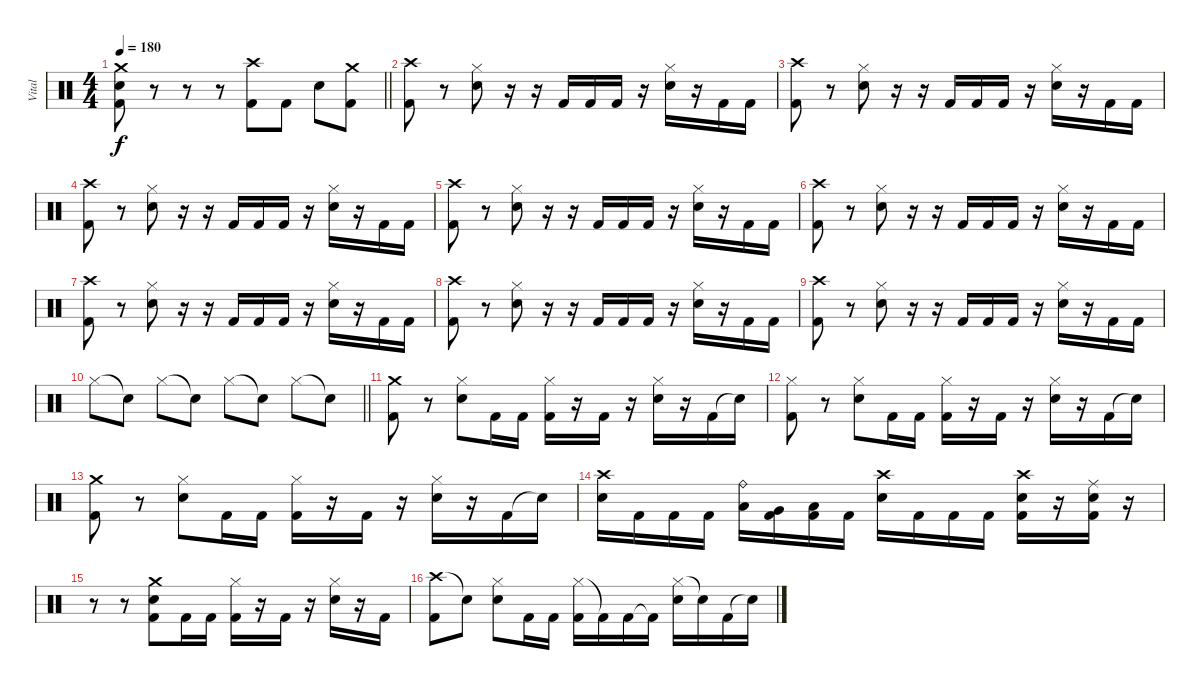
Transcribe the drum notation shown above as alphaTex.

\track ("Vital" "Vital") {instrument percussion}
\staff {score}
\articulation defaults
\ts (4 4)
\tempo 180
\clef neutral
\barLineRight lightlight
\ks c
("Crash medium (hit)" "Snare (hit) 2" "Kick (hit) 2").8{dy f} r.8 r.8 r.8 ("Crash high (hit)" "Kick (hit) 2").8 "Kick (hit) 2".8 "Snare (hit) 2".8 ("Crash medium (hit)" "Kick (hit) 2").8 |
("Crash high (hit)" "Kick (hit) 2").8 r.8 ("Hi-Hat (closed)" "Snare (hit) 2").8 r.16 r.16 "Kick (hit) 2".16 "Kick (hit) 2".16 "Kick (hit) 2".16 r.16 ("Hi-Hat (closed)" "Snare (hit) 2").16 r.16 "Kick (hit) 2".16 "Kick (hit) 2".16 |
("Crash high (hit)" "Kick (hit) 2").8 r.8 ("Hi-Hat (closed)" "Snare (hit) 2").8 r.16 r.16 "Kick (hit) 2".16 "Kick (hit) 2".16 "Kick (hit) 2".16 r.16 ("Hi-Hat (closed)" "Snare (hit) 2").16 r.16 "Kick (hit) 2".16 "Kick (hit) 2".16 |
("Crash high (hit)" "Kick (hit) 2").8 r.8 ("Hi-Hat (closed)" "Snare (hit) 2").8 r.16 r.16 "Kick (hit) 2".16 "Kick (hit) 2".16 "Kick (hit) 2".16 r.16 ("Hi-Hat (closed)" "Snare (hit) 2").16 r.16 "Kick (hit) 2".16 "Kick (hit) 2".16 |
("Crash high (hit)" "Kick (hit) 2").8 r.8 ("Hi-Hat (closed)" "Snare (hit) 2").8 r.16 r.16 "Kick (hit) 2".16 "Kick (hit) 2".16 "Kick (hit) 2".16 r.16 ("Hi-Hat (closed)" "Snare (hit) 2").16 r.16 "Kick (hit) 2".16 "Kick (hit) 2".16 |
("Crash high (hit)" "Kick (hit) 2").8 r.8 ("Hi-Hat (closed)" "Snare (hit) 2").8 r.16 r.16 "Kick (hit) 2".16 "Kick (hit) 2".16 "Kick (hit) 2".16 r.16 ("Hi-Hat (closed)" "Snare (hit) 2").16 r.16 "Kick (hit) 2".16 "Kick (hit) 2".16 |
("Crash high (hit)" "Kick (hit) 2").8 r.8 ("Hi-Hat (closed)" "Snare (hit) 2").8 r.16 r.16 "Kick (hit) 2".16 "Kick (hit) 2".16 "Kick (hit) 2".16 r.16 ("Hi-Hat (closed)" "Snare (hit) 2").16 r.16 "Kick (hit) 2".16 "Kick (hit) 2".16 |
("Crash high (hit)" "Kick (hit) 2").8 r.8 ("Hi-Hat (closed)" "Snare (hit) 2").8 r.16 r.16 "Kick (hit) 2".16 "Kick (hit) 2".16 "Kick (hit) 2".16 r.16 ("Hi-Hat (closed)" "Snare (hit) 2").16 r.16 "Kick (hit) 2".16 "Kick (hit) 2".16 |
("Crash high (hit)" "Kick (hit) 2").8 r.8 ("Hi-Hat (closed)" "Snare (hit) 2").8 r.16 r.16 "Kick (hit) 2".16 "Kick (hit) 2".16 "Kick (hit) 2".16 r.16 ("Hi-Hat (closed)" "Snare (hit) 2").16 r.16 "Kick (hit) 2".16 "Kick (hit) 2".16 |
\barLineRight lightlight "Hi-Hat (closed)".8 "Snare (hit)"{t}.8 "Hi-Hat (closed)".8 "Snare (hit)"{t}.8 "Hi-Hat (closed)".8 "Snare (hit)"{t}.8 "Hi-Hat (closed)".8 "Snare (hit)"{t}.8
|
("Crash medium (hit)" "Kick (hit) 2").8 r.8 ("Hi-Hat (closed)" "Snare (hit) 2").8 "Kick (hit) 2".16 "Kick (hit) 2".16 ("Hi-Hat (closed)" "Kick (hit) 2").16 r.16 "Kick (hit) 2".16 r.16 ("Hi-Hat (closed)" "Snare (hit) 2").16 r.16 "Kick (hit) 2".16 "Snare (hit)"{t}.16 |
("Hi-Hat (closed)" "Kick (hit) 2").8 r.8 ("Hi-Hat (closed)" "Snare (hit) 2").8 "Kick (hit) 2".16 "Kick (hit) 2".16 ("Hi-Hat (closed)" "Kick (hit) 2").16 r.16 "Kick (hit) 2".16 r.16 ("Hi-Hat (closed)" "Snare (hit) 2").16 r.16 "Kick (hit) 2".16 "Snare (hit)"{t}.16 |
("Crash medium (hit)" "Kick (hit) 2").8 r.8 ("Hi-Hat (closed)" "Snare (hit) 2").8 "Kick (hit) 2".16 "Kick (hit) 2".16 ("Hi-Hat (closed)" "Kick (hit) 2").16 r.16 "Kick (hit) 2".16 r.16 ("Hi-Hat (closed)" "Snare (hit) 2").16 r.16 "Kick (hit) 2".16 "Snare (hit)"{t}.16 |
("Snare (hit) 2" "Crash high (hit)").16 "Kick (hit) 2".16 "Kick (hit) 2".16 "Kick (hit) 2".16 ("Low Tom (hit)" "Ride (bell)").16 ("Very Low Tom (hit)" "Kick (hit) 2").16 ("Low Floor Tom (hit)" "Kick (hit) 2").16 "Kick (hit) 2".16 ("Snare (hit) 2" "Crash high (hit)").16 "Kick (hit) 2".16 "Kick (hit) 2".16 "Kick (hit) 2".16 ("Crash high (hit)" "Snare (hit) 2" "Kick (hit) 2").16 r.16 ("Ride (middle)" "Snare (hit) 2" "Kick (hit) 2").16 r.16 |
r.8 r.8 ("Crash medium (hit)" "Snare (hit) 2" "Kick (hit) 2").8 "Kick (hit) 2".16 "Kick (hit) 2".16 ("Hi-Hat (closed)" "Kick (hit) 2").16 r.16 "Kick (hit) 2".16 r.16 ("Hi-Hat (closed)" "Snare (hit) 2").16 r.16 "Kick (hit) 2".16 |
("Crash high (hit)" "Kick (hit) 2").8 "Electric Snare (hit)"{t}.8 ("Hi-Hat (closed)" "Snare (hit) 2").8 "Kick (hit) 2".16 "Kick (hit) 2".16 ("Hi-Hat (closed)" "Kick (hit) 2").16 "Kick (hit) 2"{t}.16 "Kick (hit) 2".16 "Kick (hit) 2"{t}.16 ("Hi-Hat (closed)" "Snare (hit) 2").16 "Electric Snare (hit)"{t}.16 "Kick (hit) 2".16 "Snare (hit)"{t}.16
